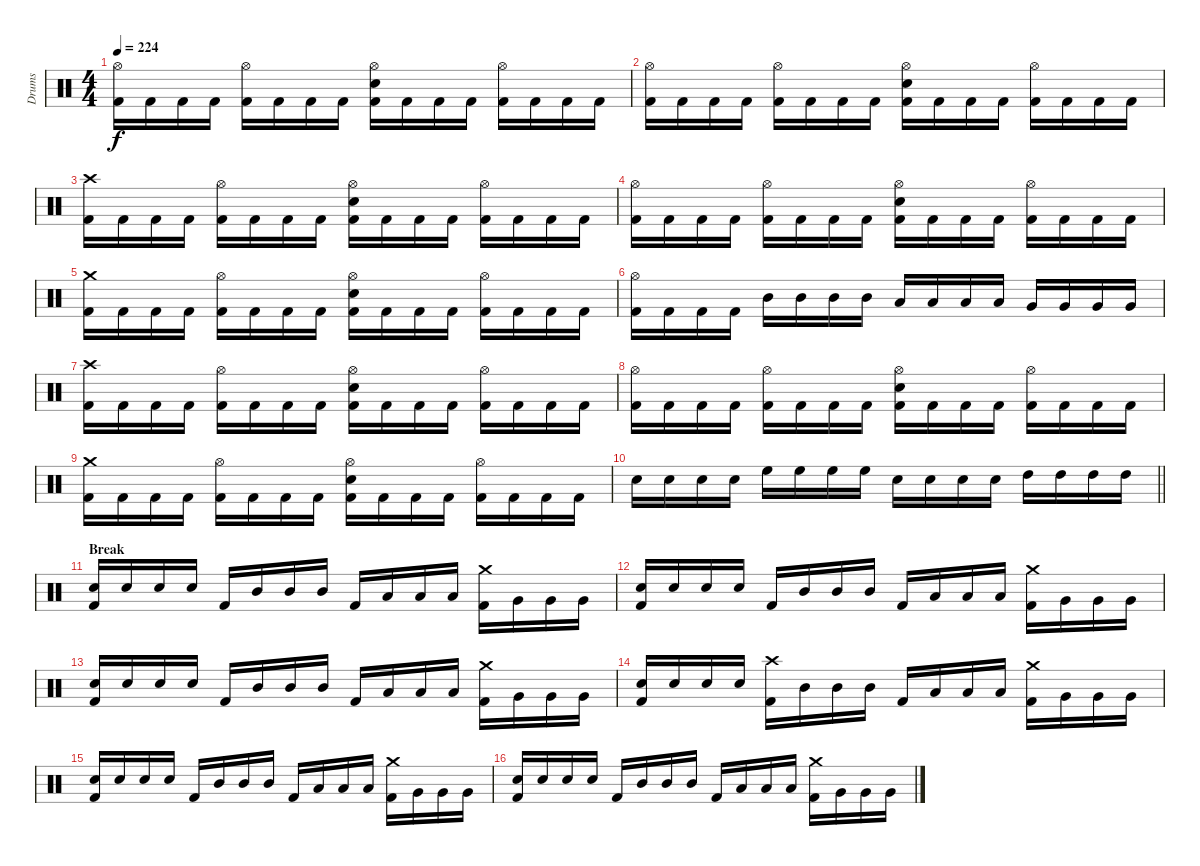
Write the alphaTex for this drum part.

\track ("Drums" "Drums") {instrument percussion}
\staff {score}
\articulation defaults
\ts (4 4)
\tempo 224
\clef neutral
\ks c
("Hi-Hat (open)" "Kick (hit) 2").16{dy f} "Kick (hit) 2".16 "Kick (hit) 2".16 "Kick (hit) 2".16 ("Hi-Hat (open)" "Kick (hit) 2").16 "Kick (hit) 2".16 "Kick (hit) 2".16 "Kick (hit) 2".16 ("Hi-Hat (open)" "Electric Snare (hit)" "Kick (hit) 2").16 "Kick (hit) 2".16 "Kick (hit) 2".16 "Kick (hit) 2".16 ("Hi-Hat (open)" "Kick (hit) 2").16 "Kick (hit) 2".16 "Kick (hit) 2".16 "Kick (hit) 2".16 |
("Hi-Hat (open)" "Kick (hit) 2").16 "Kick (hit) 2".16 "Kick (hit) 2".16 "Kick (hit) 2".16 ("Hi-Hat (open)" "Kick (hit) 2").16 "Kick (hit) 2".16 "Kick (hit) 2".16 "Kick (hit) 2".16 ("Hi-Hat (open)" "Electric Snare (hit)" "Kick (hit) 2").16 "Kick (hit) 2".16 "Kick (hit) 2".16 "Kick (hit) 2".16 ("Hi-Hat (open)" "Kick (hit) 2").16 "Kick (hit) 2".16 "Kick (hit) 2".16 "Kick (hit) 2".16 |
("Crash high (hit)" "Kick (hit) 2").16 "Kick (hit) 2".16 "Kick (hit) 2".16 "Kick (hit) 2".16 ("Hi-Hat (open)" "Kick (hit) 2").16 "Kick (hit) 2".16 "Kick (hit) 2".16 "Kick (hit) 2".16 ("Hi-Hat (open)" "Electric Snare (hit)" "Kick (hit) 2").16 "Kick (hit) 2".16 "Kick (hit) 2".16 "Kick (hit) 2".16 ("Hi-Hat (open)" "Kick (hit) 2").16 "Kick (hit) 2".16 "Kick (hit) 2".16 "Kick (hit) 2".16 |
("Hi-Hat (open)" "Kick (hit) 2").16 "Kick (hit) 2".16 "Kick (hit) 2".16 "Kick (hit) 2".16 ("Hi-Hat (open)" "Kick (hit) 2").16 "Kick (hit) 2".16 "Kick (hit) 2".16 "Kick (hit) 2".16 ("Hi-Hat (open)" "Electric Snare (hit)" "Kick (hit) 2").16 "Kick (hit) 2".16 "Kick (hit) 2".16 "Kick (hit) 2".16 ("Hi-Hat (open)" "Kick (hit) 2").16 "Kick (hit) 2".16 "Kick (hit) 2".16 "Kick (hit) 2".16 |
("Crash medium (hit)" "Kick (hit) 2").16 "Kick (hit) 2".16 "Kick (hit) 2".16 "Kick (hit) 2".16 ("Hi-Hat (open)" "Kick (hit) 2").16 "Kick (hit) 2".16 "Kick (hit) 2".16 "Kick (hit) 2".16 ("Hi-Hat (open)" "Electric Snare (hit)" "Kick (hit) 2").16 "Kick (hit) 2".16 "Kick (hit) 2".16 "Kick (hit) 2".16 ("Hi-Hat (open)" "Kick (hit) 2").16 "Kick (hit) 2".16 "Kick (hit) 2".16 "Kick (hit) 2".16 |
("Hi-Hat (open)" "Kick (hit) 2").16 "Kick (hit) 2".16 "Kick (hit) 2".16 "Kick (hit) 2".16 "Mid Tom (hit)".16 "Mid Tom (hit)".16 "Mid Tom (hit)".16 "Mid Tom (hit)".16 "Low Tom (hit)".16 "Low Tom (hit)".16 "Low Tom (hit)".16 "Low Tom (hit)".16 "Very Low Tom (hit)".16 "Very Low Tom (hit)".16 "Very Low Tom (hit)".16 "Very Low Tom (hit)".16 |
("Crash high (hit)" "Kick (hit) 2").16 "Kick (hit) 2".16 "Kick (hit) 2".16 "Kick (hit) 2".16 ("Hi-Hat (open)" "Kick (hit) 2").16 "Kick (hit) 2".16 "Kick (hit) 2".16 "Kick (hit) 2".16 ("Hi-Hat (open)" "Electric Snare (hit)" "Kick (hit) 2").16 "Kick (hit) 2".16 "Kick (hit) 2".16 "Kick (hit) 2".16 ("Hi-Hat (open)" "Kick (hit) 2").16 "Kick (hit) 2".16 "Kick (hit) 2".16 "Kick (hit) 2".16 |
("Hi-Hat (open)" "Kick (hit) 2").16 "Kick (hit) 2".16 "Kick (hit) 2".16 "Kick (hit) 2".16 ("Hi-Hat (open)" "Kick (hit) 2").16 "Kick (hit) 2".16 "Kick (hit) 2".16 "Kick (hit) 2".16 ("Hi-Hat (open)" "Electric Snare (hit)" "Kick (hit) 2").16 "Kick (hit) 2".16 "Kick (hit) 2".16 "Kick (hit) 2".16 ("Hi-Hat (open)" "Kick (hit) 2").16 "Kick (hit) 2".16 "Kick (hit) 2".16 "Kick (hit) 2".16 |
("Crash medium (hit)" "Kick (hit) 2").16 "Kick (hit) 2".16 "Kick (hit) 2".16 "Kick (hit) 2".16 ("Hi-Hat (open)" "Kick (hit) 2").16 "Kick (hit) 2".16 "Kick (hit) 2".16 "Kick (hit) 2".16 ("Hi-Hat (open)" "Electric Snare (hit)" "Kick (hit) 2").16 "Kick (hit) 2".16 "Kick (hit) 2".16 "Kick (hit) 2".16 ("Hi-Hat (open)" "Kick (hit) 2").16 "Kick (hit) 2".16 "Kick (hit) 2".16 "Kick (hit) 2".16 |
\barLineRight lightlight "Electric Snare (hit)".16 "Electric Snare (hit)".16 "Electric Snare (hit)".16 "Electric Snare (hit)".16 "High Floor Tom (hit)".16 "High Floor Tom (hit)".16 "High Floor Tom (hit)".16 "High Floor Tom (hit)".16 "Electric Snare (hit)".16 "Electric Snare (hit)".16 "Electric Snare (hit)".16 "Electric Snare (hit)".16 "High Tom (hit)".16 "High Tom (hit)".16 "High Tom (hit)".16 "High Tom (hit)".16
|
\section ("" "Break")
("Electric Snare (hit)" "Kick (hit) 2").16 "Electric Snare (hit)".16 "Electric Snare (hit)".16 "Electric Snare (hit)".16 "Kick (hit) 2".16 "Mid Tom (hit)".16 "Mid Tom (hit)".16 "Mid Tom (hit)".16 "Kick (hit) 2".16 "Low Tom (hit)".16 "Low Tom (hit)".16 "Low Tom (hit)".16 ("Crash medium (hit)" "Kick (hit) 2").16 "Very Low Tom (hit)".16 "Very Low Tom (hit)".16 "Very Low Tom (hit)".16 |
("Electric Snare (hit)" "Kick (hit) 2").16 "Electric Snare (hit)".16 "Electric Snare (hit)".16 "Electric Snare (hit)".16 "Kick (hit) 2".16 "Mid Tom (hit)".16 "Mid Tom (hit)".16 "Mid Tom (hit)".16 "Kick (hit) 2".16 "Low Tom (hit)".16 "Low Tom (hit)".16 "Low Tom (hit)".16 ("Crash medium (hit)" "Kick (hit) 2").16 "Very Low Tom (hit)".16 "Very Low Tom (hit)".16 "Very Low Tom (hit)".16 |
("Electric Snare (hit)" "Kick (hit) 2").16 "Electric Snare (hit)".16 "Electric Snare (hit)".16 "Electric Snare (hit)".16 "Kick (hit) 2".16 "Mid Tom (hit)".16 "Mid Tom (hit)".16 "Mid Tom (hit)".16 "Kick (hit) 2".16 "Low Tom (hit)".16 "Low Tom (hit)".16 "Low Tom (hit)".16 ("Crash medium (hit)" "Kick (hit) 2").16 "Very Low Tom (hit)".16 "Very Low Tom (hit)".16 "Very Low Tom (hit)".16 |
("Electric Snare (hit)" "Kick (hit) 2").16 "Electric Snare (hit)".16 "Electric Snare (hit)".16 "Electric Snare (hit)".16 ("Crash high (hit)" "Kick (hit) 2").16 "Mid Tom (hit)".16 "Mid Tom (hit)".16 "Mid Tom (hit)".16 "Kick (hit) 2".16 "Low Tom (hit)".16 "Low Tom (hit)".16 "Low Tom (hit)".16 ("Crash medium (hit)" "Kick (hit) 2").16 "Very Low Tom (hit)".16 "Very Low Tom (hit)".16 "Very Low Tom (hit)".16 |
("Electric Snare (hit)" "Kick (hit) 2").16 "Electric Snare (hit)".16 "Electric Snare (hit)".16 "Electric Snare (hit)".16 "Kick (hit) 2".16 "Mid Tom (hit)".16 "Mid Tom (hit)".16 "Mid Tom (hit)".16 "Kick (hit) 2".16 "Low Tom (hit)".16 "Low Tom (hit)".16 "Low Tom (hit)".16 ("Crash medium (hit)" "Kick (hit) 2").16 "Very Low Tom (hit)".16 "Very Low Tom (hit)".16 "Very Low Tom (hit)".16 |
("Electric Snare (hit)" "Kick (hit) 2").16 "Electric Snare (hit)".16 "Electric Snare (hit)".16 "Electric Snare (hit)".16 "Kick (hit) 2".16 "Mid Tom (hit)".16 "Mid Tom (hit)".16 "Mid Tom (hit)".16 "Kick (hit) 2".16 "Low Tom (hit)".16 "Low Tom (hit)".16 "Low Tom (hit)".16 ("Crash medium (hit)" "Kick (hit) 2").16 "Very Low Tom (hit)".16 "Very Low Tom (hit)".16 "Very Low Tom (hit)".16
